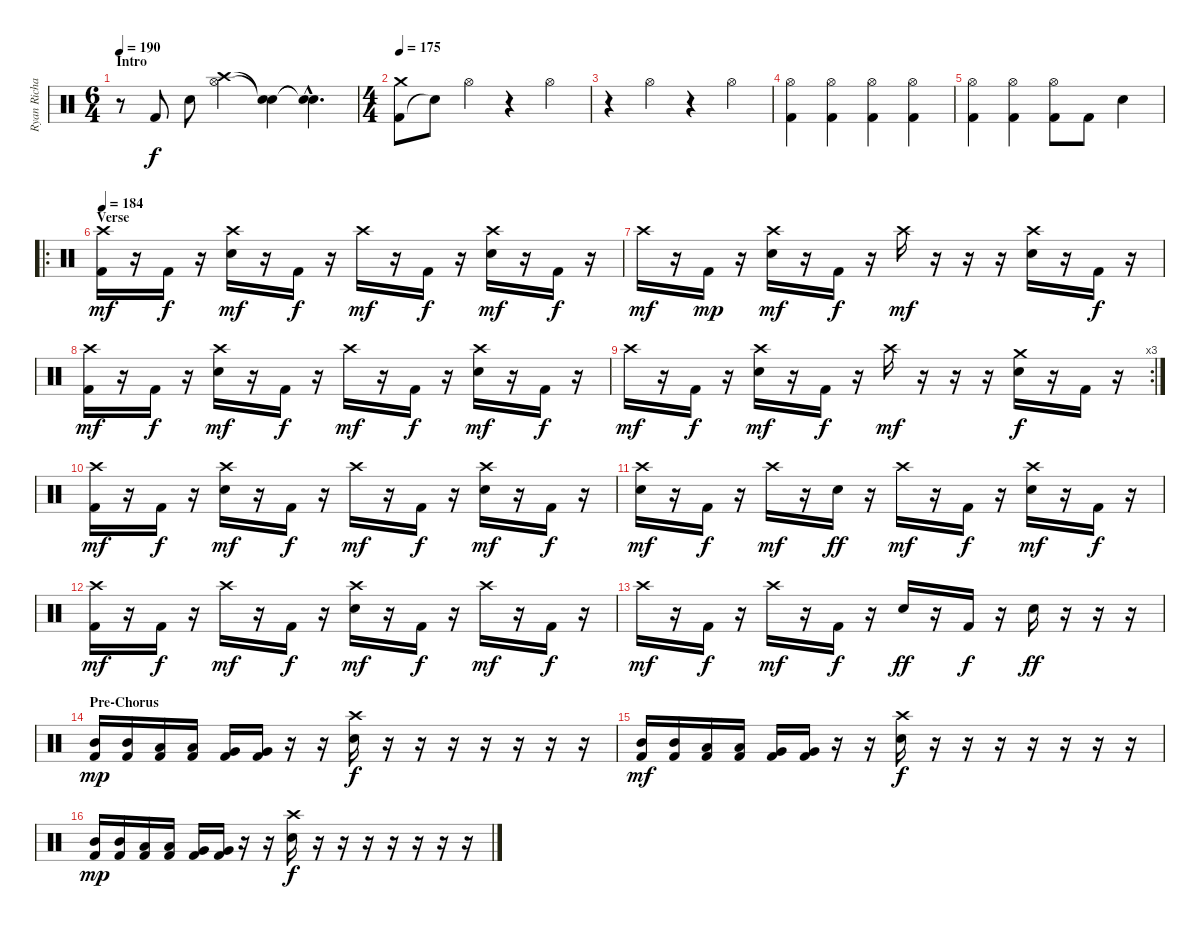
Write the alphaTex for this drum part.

\track ("Ryan Richards" "Ryan Richa") {instrument percussion}
\staff {score}
\articulation defaults
\ts (6 4)
\section ("" "Intro")
\tempo 190
\clef neutral
\ks c
r.8{dy f} "Kick (hit) 2".8 "Snare (hit) 2".8 ("Hi-Hat (open)" "Crash high (hit)").2 ("Snare (hit)"{t} "Snare (hit)"{t}).4 ("Snare (hit)"{hac t} "Snare (hit)"{hac t}).4{d} |
\ts (4 4)
\tempo 175
("Kick (hit) 2" "Crash medium (hit)").8 "Snare (hit)"{t}.8 "Hi-Hat (open)".4 r.4 "Hi-Hat (open)".4 |
r.4 "Hi-Hat (open)".4 r.4 "Hi-Hat (open)".4 |
("Kick (hit) 2" "Hi-Hat (open)").4 ("Kick (hit) 2" "Hi-Hat (open)").4 ("Kick (hit) 2" "Hi-Hat (open)").4 ("Kick (hit) 2" "Hi-Hat (open)").4 |
("Kick (hit) 2" "Hi-Hat (open)").4 ("Kick (hit) 2" "Hi-Hat (open)").4 ("Kick (hit) 2" "Hi-Hat (open)").8 "Kick (hit) 2".8 "Snare (hit) 2".4 |
\ro
\section ("" "Verse")
\tempo 184
("Kick (hit) 2" "Crash high (hit)").16{dy mf} r.16 "Kick (hit) 2".16{dy f} r.16 ("Snare (hit) 2" "Crash high (hit)").16{dy mf} r.16 "Kick (hit) 2".16{dy f} r.16 "Crash high (hit)".16{dy mf} r.16 "Kick (hit) 2".16{dy f} r.16 ("Snare (hit) 2" "Crash high (hit)").16{dy mf} r.16 "Kick (hit) 2".16{dy f} r.16 |
"Crash high (hit)".16{dy mf} r.16 "Kick (hit) 2".16{dy mp} r.16 ("Snare (hit) 2" "Crash high (hit)").16{dy mf} r.16 "Kick (hit) 2".16{dy f} r.16 "Crash high (hit)".16{dy mf} r.16 r.16 r.16 ("Snare (hit) 2" "Crash high (hit)").16 r.16 "Kick (hit) 2".16{dy f} r.16 |
("Kick (hit) 2" "Crash high (hit)").16{dy mf} r.16 "Kick (hit) 2".16{dy f} r.16 ("Snare (hit) 2" "Crash high (hit)").16{dy mf} r.16 "Kick (hit) 2".16{dy f} r.16 "Crash high (hit)".16{dy mf} r.16 "Kick (hit) 2".16{dy f} r.16 ("Snare (hit) 2" "Crash high (hit)").16{dy mf} r.16 "Kick (hit) 2".16{dy f} r.16 |
\rc 3 "Crash high (hit)".16{dy mf}
r.16 "Kick (hit) 2".16{dy f} r.16 ("Snare (hit) 2" "Crash high (hit)").16{dy mf} r.16 "Kick (hit) 2".16{dy f} r.16 "Crash high (hit)".16{dy mf} r.16 r.16 r.16 ("Snare (hit) 2" "Crash medium (hit)").16{dy f} r.16 "Kick (hit) 2".16 r.16 |
("Kick (hit) 2" "Crash high (hit)").16{dy mf} r.16 "Kick (hit) 2".16{dy f} r.16 ("Snare (hit) 2" "Crash high (hit)").16{dy mf} r.16 "Kick (hit) 2".16{dy f} r.16 "Crash high (hit)".16{dy mf} r.16 "Kick (hit) 2".16{dy f} r.16 ("Snare (hit) 2" "Crash high (hit)").16{dy mf} r.16 "Kick (hit) 2".16{dy f} r.16 |
("Snare (hit) 2" "Crash high (hit)").16{dy mf} r.16 "Kick (hit) 2".16{dy f} r.16 "Crash high (hit)".16{dy mf} r.16 "Snare (hit) 2".16{dy ff} r.16 "Crash high (hit)".16{dy mf} r.16 "Kick (hit) 2".16{dy f} r.16 ("Snare (hit) 2" "Crash high (hit)").16{dy mf} r.16 "Kick (hit) 2".16{dy f} r.16 |
("Kick (hit) 2" "Crash high (hit)").16{dy mf} r.16 "Kick (hit) 2".16{dy f} r.16 "Crash high (hit)".16{dy mf} r.16 "Kick (hit) 2".16{dy f} r.16 ("Snare (hit) 2" "Crash high (hit)").16{dy mf} r.16 "Kick (hit) 2".16{dy f} r.16 "Crash high (hit)".16{dy mf} r.16 "Kick (hit) 2".16{dy f} r.16 |
"Crash high (hit)".16{dy mf} r.16 "Kick (hit) 2".16{dy f} r.16 "Crash high (hit)".16{dy mf} r.16 "Kick (hit) 2".16{dy f} r.16 "Snare (hit) 2".16{dy ff} r.16 "Kick (hit) 2".16{dy f} r.16 "Snare (hit) 2".16{dy ff} r.16 r.16 r.16 |
\section ("" "Pre-Chorus")
("Kick (hit) 2" "Mid Tom (hit)").16{dy mp} ("Kick (hit) 2" "Mid Tom (hit)").16 ("Kick (hit) 2" "Low Tom (hit)").16 ("Kick (hit) 2" "Low Tom (hit)").16 ("Kick (hit) 2" "Very Low Tom (hit)").16 ("Kick (hit) 2" "Very Low Tom (hit)").16 r.16 r.16 ("Snare (hit) 2" "Crash high (hit)").16{dy f} r.16 r.16 r.16 r.16 r.16 r.16 r.16 |
("Kick (hit) 2" "Mid Tom (hit)").16{dy mf} ("Kick (hit) 2" "Mid Tom (hit)").16 ("Kick (hit) 2" "Low Tom (hit)").16 ("Kick (hit) 2" "Low Tom (hit)").16 ("Kick (hit) 2" "Very Low Tom (hit)").16 ("Kick (hit) 2" "Very Low Tom (hit)").16 r.16 r.16 ("Snare (hit) 2" "Crash high (hit)").16{dy f} r.16 r.16 r.16 r.16 r.16 r.16 r.16 |
("Kick (hit) 2" "Mid Tom (hit)").16{dy mp} ("Kick (hit) 2" "Mid Tom (hit)").16 ("Kick (hit) 2" "Low Tom (hit)").16 ("Kick (hit) 2" "Low Tom (hit)").16 ("Kick (hit) 2" "Very Low Tom (hit)").16 ("Kick (hit) 2" "Very Low Tom (hit)").16 r.16 r.16 ("Snare (hit) 2" "Crash high (hit)").16{dy f} r.16 r.16 r.16 r.16 r.16 r.16 r.16
